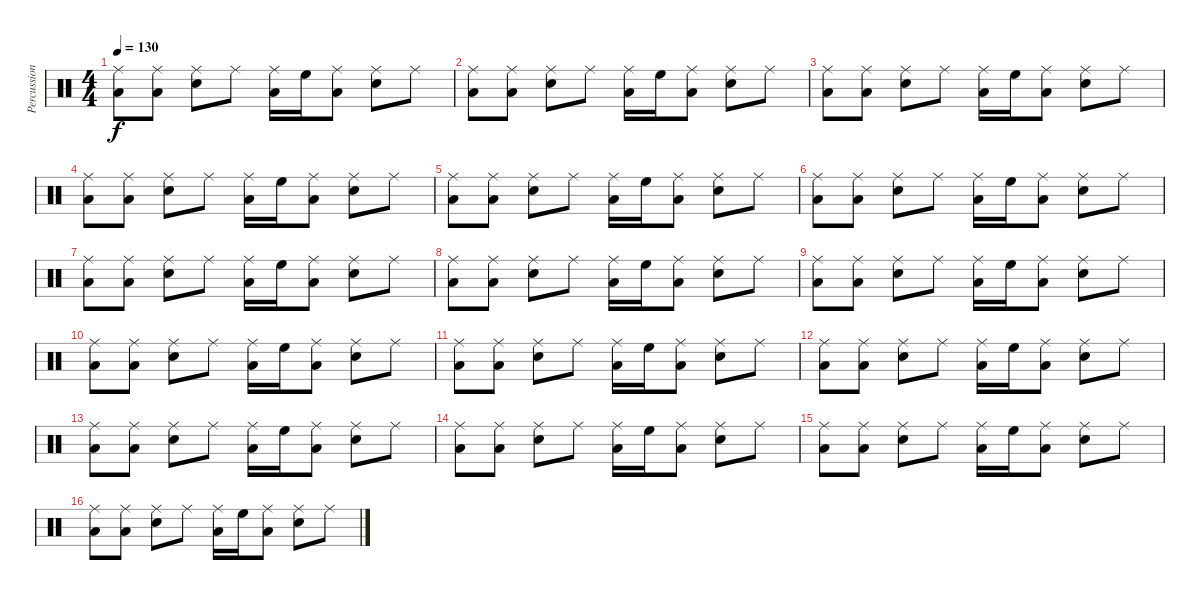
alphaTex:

\track ("Percussions" "Percussion") {instrument percussion}
\staff {score}
\articulation defaults
\ts (4 4)
\tempo 130
\clef neutral
\ks c
("Low Floor Tom (hit)" "Ride (middle)").8{dy f} ("Low Floor Tom (hit)" "Ride (middle)").8 ("Electric Snare (hit)" "Ride (middle)").8 "Ride (middle)".8 ("Low Floor Tom (hit)" "Ride (middle)").16 "High Floor Tom (hit)".16 ("Low Floor Tom (hit)" "Ride (middle)").8 ("Electric Snare (hit)" "Ride (middle)").8 "Ride (middle)".8 |
("Low Floor Tom (hit)" "Ride (middle)").8 ("Low Floor Tom (hit)" "Ride (middle)").8 ("Electric Snare (hit)" "Ride (middle)").8 "Ride (middle)".8 ("Low Floor Tom (hit)" "Ride (middle)").16 "High Floor Tom (hit)".16 ("Low Floor Tom (hit)" "Ride (middle)").8 ("Electric Snare (hit)" "Ride (middle)").8 "Ride (middle)".8 |
("Low Floor Tom (hit)" "Ride (middle)").8 ("Low Floor Tom (hit)" "Ride (middle)").8 ("Electric Snare (hit)" "Ride (middle)").8 "Ride (middle)".8 ("Low Floor Tom (hit)" "Ride (middle)").16 "High Floor Tom (hit)".16 ("Low Floor Tom (hit)" "Ride (middle)").8 ("Electric Snare (hit)" "Ride (middle)").8 "Ride (middle)".8 |
("Low Floor Tom (hit)" "Ride (middle)").8 ("Low Floor Tom (hit)" "Ride (middle)").8 ("Electric Snare (hit)" "Ride (middle)").8 "Ride (middle)".8 ("Low Floor Tom (hit)" "Ride (middle)").16 "High Floor Tom (hit)".16 ("Low Floor Tom (hit)" "Ride (middle)").8 ("Electric Snare (hit)" "Ride (middle)").8 "Ride (middle)".8 |
("Low Floor Tom (hit)" "Ride (middle)").8 ("Low Floor Tom (hit)" "Ride (middle)").8 ("Electric Snare (hit)" "Ride (middle)").8 "Ride (middle)".8 ("Low Floor Tom (hit)" "Ride (middle)").16 "High Floor Tom (hit)".16 ("Low Floor Tom (hit)" "Ride (middle)").8 ("Electric Snare (hit)" "Ride (middle)").8 "Ride (middle)".8 |
("Low Floor Tom (hit)" "Ride (middle)").8 ("Low Floor Tom (hit)" "Ride (middle)").8 ("Electric Snare (hit)" "Ride (middle)").8 "Ride (middle)".8 ("Low Floor Tom (hit)" "Ride (middle)").16 "High Floor Tom (hit)".16 ("Low Floor Tom (hit)" "Ride (middle)").8 ("Electric Snare (hit)" "Ride (middle)").8 "Ride (middle)".8 |
("Low Floor Tom (hit)" "Ride (middle)").8 ("Low Floor Tom (hit)" "Ride (middle)").8 ("Electric Snare (hit)" "Ride (middle)").8 "Ride (middle)".8 ("Low Floor Tom (hit)" "Ride (middle)").16 "High Floor Tom (hit)".16 ("Low Floor Tom (hit)" "Ride (middle)").8 ("Electric Snare (hit)" "Ride (middle)").8 "Ride (middle)".8 |
("Low Floor Tom (hit)" "Ride (middle)").8 ("Low Floor Tom (hit)" "Ride (middle)").8 ("Electric Snare (hit)" "Ride (middle)").8 "Ride (middle)".8 ("Low Floor Tom (hit)" "Ride (middle)").16 "High Floor Tom (hit)".16 ("Low Floor Tom (hit)" "Ride (middle)").8 ("Electric Snare (hit)" "Ride (middle)").8 "Ride (middle)".8 |
("Low Floor Tom (hit)" "Ride (middle)").8 ("Low Floor Tom (hit)" "Ride (middle)").8 ("Electric Snare (hit)" "Ride (middle)").8 "Ride (middle)".8 ("Low Floor Tom (hit)" "Ride (middle)").16 "High Floor Tom (hit)".16 ("Low Floor Tom (hit)" "Ride (middle)").8 ("Electric Snare (hit)" "Ride (middle)").8 "Ride (middle)".8 |
("Low Floor Tom (hit)" "Ride (middle)").8 ("Low Floor Tom (hit)" "Ride (middle)").8 ("Electric Snare (hit)" "Ride (middle)").8 "Ride (middle)".8 ("Low Floor Tom (hit)" "Ride (middle)").16 "High Floor Tom (hit)".16 ("Low Floor Tom (hit)" "Ride (middle)").8 ("Electric Snare (hit)" "Ride (middle)").8 "Ride (middle)".8 |
("Low Floor Tom (hit)" "Ride (middle)").8 ("Low Floor Tom (hit)" "Ride (middle)").8 ("Electric Snare (hit)" "Ride (middle)").8 "Ride (middle)".8 ("Low Floor Tom (hit)" "Ride (middle)").16 "High Floor Tom (hit)".16 ("Low Floor Tom (hit)" "Ride (middle)").8 ("Electric Snare (hit)" "Ride (middle)").8 "Ride (middle)".8 |
("Low Floor Tom (hit)" "Ride (middle)").8 ("Low Floor Tom (hit)" "Ride (middle)").8 ("Electric Snare (hit)" "Ride (middle)").8 "Ride (middle)".8 ("Low Floor Tom (hit)" "Ride (middle)").16 "High Floor Tom (hit)".16 ("Low Floor Tom (hit)" "Ride (middle)").8 ("Electric Snare (hit)" "Ride (middle)").8 "Ride (middle)".8 |
("Low Floor Tom (hit)" "Ride (middle)").8 ("Low Floor Tom (hit)" "Ride (middle)").8 ("Electric Snare (hit)" "Ride (middle)").8 "Ride (middle)".8 ("Low Floor Tom (hit)" "Ride (middle)").16 "High Floor Tom (hit)".16 ("Low Floor Tom (hit)" "Ride (middle)").8 ("Electric Snare (hit)" "Ride (middle)").8 "Ride (middle)".8 |
("Low Floor Tom (hit)" "Ride (middle)").8 ("Low Floor Tom (hit)" "Ride (middle)").8 ("Electric Snare (hit)" "Ride (middle)").8 "Ride (middle)".8 ("Low Floor Tom (hit)" "Ride (middle)").16 "High Floor Tom (hit)".16 ("Low Floor Tom (hit)" "Ride (middle)").8 ("Electric Snare (hit)" "Ride (middle)").8 "Ride (middle)".8 |
("Low Floor Tom (hit)" "Ride (middle)").8 ("Low Floor Tom (hit)" "Ride (middle)").8 ("Electric Snare (hit)" "Ride (middle)").8 "Ride (middle)".8 ("Low Floor Tom (hit)" "Ride (middle)").16 "High Floor Tom (hit)".16 ("Low Floor Tom (hit)" "Ride (middle)").8 ("Electric Snare (hit)" "Ride (middle)").8 "Ride (middle)".8 |
("Low Floor Tom (hit)" "Ride (middle)").8 ("Low Floor Tom (hit)" "Ride (middle)").8 ("Electric Snare (hit)" "Ride (middle)").8 "Ride (middle)".8 ("Low Floor Tom (hit)" "Ride (middle)").16 "High Floor Tom (hit)".16 ("Low Floor Tom (hit)" "Ride (middle)").8 ("Electric Snare (hit)" "Ride (middle)").8 "Ride (middle)".8
